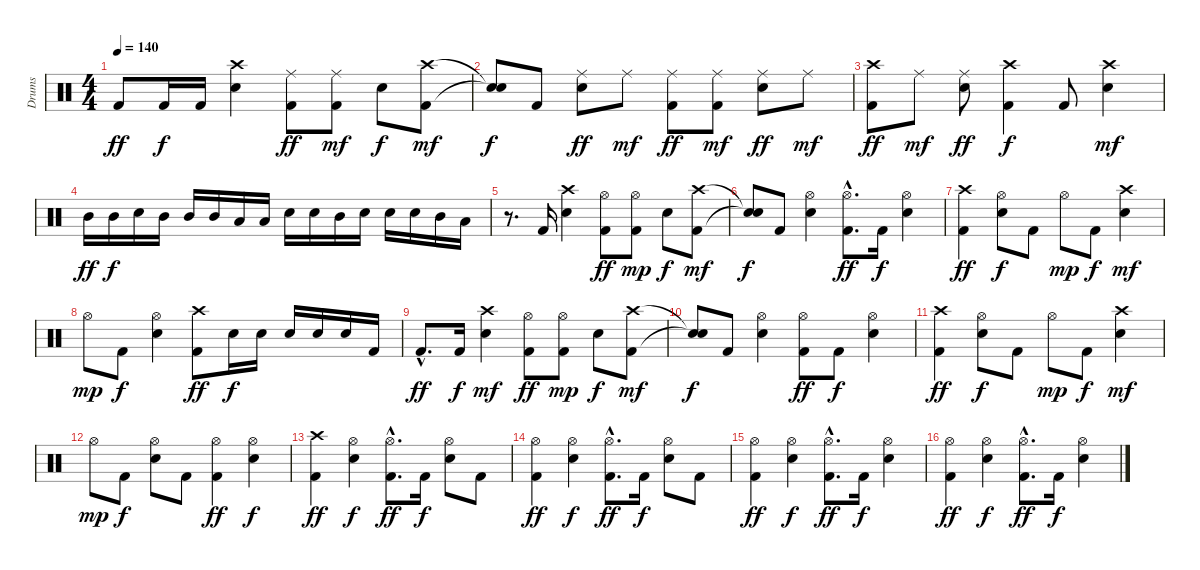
\track ("Drums" "Drums") {instrument percussion}
\staff {score}
\articulation defaults
\ts (4 4)
\tempo 140
\clef neutral
\ks c "Kick (hit) 2".8{dy ff} "Kick (hit) 2".16{dy f} "Kick (hit) 2".16
("Crash high (hit)" "Electric Snare (hit)").4 ("Ride (middle)" "Kick (hit) 2").8{dy ff} ("Ride (middle)" "Kick (hit) 2").8{dy mf} "Electric Snare (hit)".8{dy f} ("Crash high (hit)" "Kick (hit) 2").8{dy mf} |
("Snare (hit)"{t} "Snare (hit)"{t}).8{dy f} "Kick (hit) 2".8 ("Ride (middle)" "Electric Snare (hit)").8{dy ff} "Ride (middle)".8{dy mf} ("Ride (middle)" "Kick (hit) 2").8{dy ff} ("Ride (middle)" "Kick (hit) 2").8{dy mf} ("Ride (middle)" "Electric Snare (hit)").8{dy ff} "Ride (middle)".8{dy mf} |
("Crash high (hit)" "Kick (hit) 2").8{dy ff} "Ride (middle)".8{dy mf} ("Ride (middle)" "Electric Snare (hit)").8{dy ff} ("Crash high (hit)" "Kick (hit) 2").4{dy f} "Kick (hit) 2".8 ("Crash high (hit)" "Electric Snare (hit)").4{dy mf} |
"Mid Tom (hit)".16{dy ff} "Mid Tom (hit)".16{dy f} "Electric Snare (hit)".16 "Mid Tom (hit)".16 "Mid Tom (hit)".16 "Mid Tom (hit)".16 "Low Tom (hit)".16 "Low Tom (hit)".16 "Electric Snare (hit)".16 "Electric Snare (hit)".16 "Mid Tom (hit)".16 "Electric Snare (hit)".16 "Electric Snare (hit)".16 "Electric Snare (hit)".16 "Mid Tom (hit)".16 "Low Tom (hit)".16 |
r.8{d} "Kick (hit) 2".16 ("Crash high (hit)" "Electric Snare (hit)").4 ("Hi-Hat (open)" "Kick (hit) 2").8{dy ff} ("Hi-Hat (open)" "Kick (hit) 2").8{dy mp} "Electric Snare (hit)".8{dy f} ("Crash high (hit)" "Kick (hit) 2").8{dy mf} |
("Snare (hit)"{t} "Snare (hit)"{t}).8{dy f} "Kick (hit) 2".8 ("Hi-Hat (open)" "Electric Snare (hit)").4 ("Hi-Hat (open)"{hac} "Kick (hit) 2"{hac}).8{d dy ff} "Kick (hit) 2".16{dy f} ("Hi-Hat (open)" "Electric Snare (hit)").4 |
("Crash high (hit)" "Kick (hit) 2").4{dy ff} ("Hi-Hat (open)" "Electric Snare (hit)").8{dy f} "Kick (hit) 2".8 "Hi-Hat (open)".8{dy mp} "Kick (hit) 2".8{dy f} ("Crash high (hit)" "Electric Snare (hit)").4{dy mf} |
"Hi-Hat (open)".8{dy mp} "Kick (hit) 2".8{dy f} ("Hi-Hat (open)" "Electric Snare (hit)").4 ("Crash high (hit)" "Kick (hit) 2").8{dy ff} "Electric Snare (hit)".16{dy f} "Electric Snare (hit)".16 "Electric Snare (hit)".16 "Electric Snare (hit)".16 "Electric Snare (hit)".16 "Kick (hit) 2".16 |
"Kick (hit) 2"{hac}.8{d dy ff} "Kick (hit) 2".16{dy f} ("Crash high (hit)" "Electric Snare (hit)").4{dy mf} ("Hi-Hat (open)" "Kick (hit) 2").8{dy ff} ("Hi-Hat (open)" "Kick (hit) 2").8{dy mp} "Electric Snare (hit)".8{dy f} ("Crash high (hit)" "Kick (hit) 2").8{dy mf} |
("Snare (hit)"{t} "Snare (hit)"{t}).8{dy f} "Kick (hit) 2".8 ("Hi-Hat (open)" "Electric Snare (hit)").4 ("Hi-Hat (open)" "Kick (hit) 2").8{dy ff} "Kick (hit) 2".8{dy f} ("Hi-Hat (open)" "Electric Snare (hit)").4 |
("Crash high (hit)" "Kick (hit) 2").4{dy ff} ("Hi-Hat (open)" "Electric Snare (hit)").8{dy f} "Kick (hit) 2".8 "Hi-Hat (open)".8{dy mp} "Kick (hit) 2".8{dy f} ("Crash high (hit)" "Electric Snare (hit)").4{dy mf} |
"Hi-Hat (open)".8{dy mp} "Kick (hit) 2".8{dy f} ("Hi-Hat (open)" "Electric Snare (hit)").8 "Kick (hit) 2".8 ("Hi-Hat (open)" "Kick (hit) 2").4{dy ff} ("Hi-Hat (open)" "Electric Snare (hit)").4{dy f} |
("Crash high (hit)" "Kick (hit) 2").4{dy ff} ("Hi-Hat (open)" "Electric Snare (hit)").4{dy f} ("Hi-Hat (open)"{hac} "Kick (hit) 2"{hac}).8{d dy ff} "Kick (hit) 2".16{dy f} ("Hi-Hat (open)" "Electric Snare (hit)").8 "Kick (hit) 2".8 |
("Hi-Hat (open)" "Kick (hit) 2").4{dy ff} ("Hi-Hat (open)" "Electric Snare (hit)").4{dy f} ("Hi-Hat (open)"{hac} "Kick (hit) 2"{hac}).8{d dy ff} "Kick (hit) 2".16{dy f} ("Hi-Hat (open)" "Electric Snare (hit)").8 "Kick (hit) 2".8 |
("Hi-Hat (open)" "Kick (hit) 2").4{dy ff} ("Hi-Hat (open)" "Electric Snare (hit)").4{dy f} ("Hi-Hat (open)"{hac} "Kick (hit) 2"{hac}).8{d dy ff} "Kick (hit) 2".16{dy f} ("Hi-Hat (open)" "Electric Snare (hit)").4 |
("Hi-Hat (open)" "Kick (hit) 2").4{dy ff} ("Hi-Hat (open)" "Electric Snare (hit)").4{dy f} ("Hi-Hat (open)"{hac} "Kick (hit) 2"{hac}).8{d dy ff} "Kick (hit) 2".16{dy f} ("Hi-Hat (open)" "Electric Snare (hit)").4
